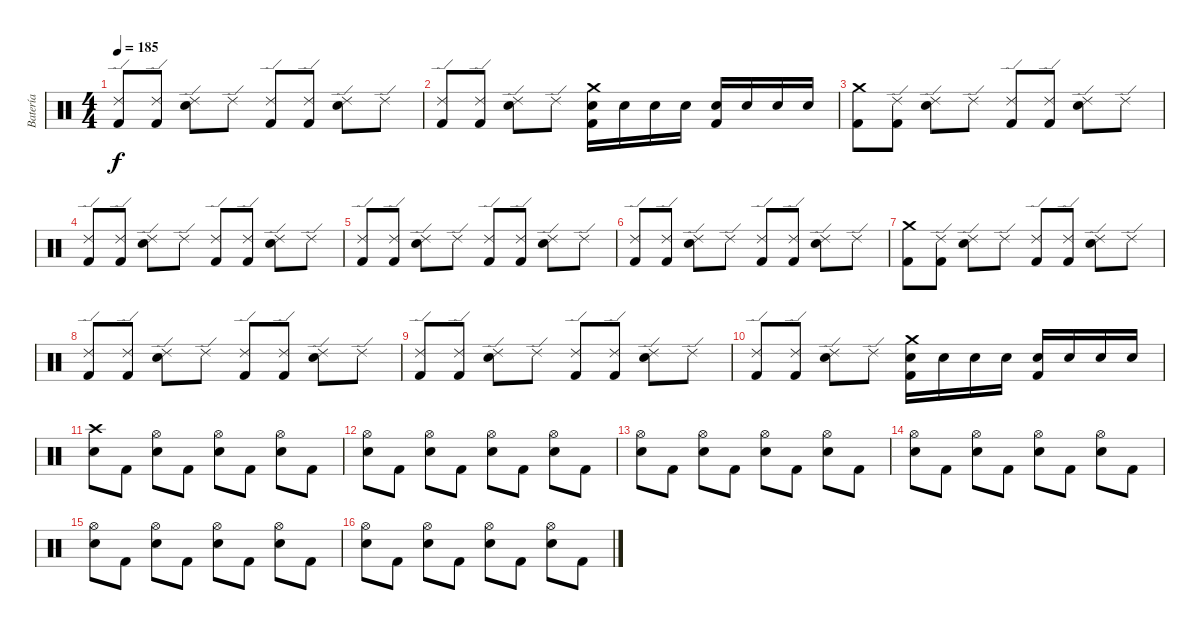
\track ("Batería" "Batería") {instrument percussion}
\staff {score}
\articulation defaults
\ts (4 4)
\tempo 185
\clef neutral
\ks c
("Ride (edge) 2" "Kick (hit) 2").8{dy f} ("Ride (edge) 2" "Kick (hit) 2").8 ("Ride (edge) 2" "Electric Snare (hit)").8 "Ride (edge) 2".8 ("Ride (edge) 2" "Kick (hit) 2").8 ("Ride (edge) 2" "Kick (hit) 2").8 ("Ride (edge) 2" "Electric Snare (hit)").8 "Ride (edge) 2".8 |
("Ride (edge) 2" "Kick (hit) 2").8 ("Ride (edge) 2" "Kick (hit) 2").8 ("Ride (edge) 2" "Electric Snare (hit)").8 "Ride (edge) 2".8 ("Crash medium (hit)" "Electric Snare (hit)" "Kick (hit) 2").16 "Electric Snare (hit)".16 "Electric Snare (hit)".16 "Electric Snare (hit)".16 ("Electric Snare (hit)" "Kick (hit) 2").16 "Electric Snare (hit)".16 "Electric Snare (hit)".16 "Electric Snare (hit)".16 |
("Crash medium (hit)" "Kick (hit) 2").8 ("Ride (edge) 2" "Kick (hit) 2").8 ("Ride (edge) 2" "Electric Snare (hit)").8 "Ride (edge) 2".8 ("Ride (edge) 2" "Kick (hit) 2").8 ("Ride (edge) 2" "Kick (hit) 2").8 ("Ride (edge) 2" "Electric Snare (hit)").8 "Ride (edge) 2".8 |
("Ride (edge) 2" "Kick (hit) 2").8 ("Ride (edge) 2" "Kick (hit) 2").8 ("Ride (edge) 2" "Electric Snare (hit)").8 "Ride (edge) 2".8 ("Ride (edge) 2" "Kick (hit) 2").8 ("Ride (edge) 2" "Kick (hit) 2").8 ("Ride (edge) 2" "Electric Snare (hit)").8 "Ride (edge) 2".8 |
("Ride (edge) 2" "Kick (hit) 2").8 ("Ride (edge) 2" "Kick (hit) 2").8 ("Ride (edge) 2" "Electric Snare (hit)").8 "Ride (edge) 2".8 ("Ride (edge) 2" "Kick (hit) 2").8 ("Ride (edge) 2" "Kick (hit) 2").8 ("Ride (edge) 2" "Electric Snare (hit)").8 "Ride (edge) 2".8 |
("Ride (edge) 2" "Kick (hit) 2").8 ("Ride (edge) 2" "Kick (hit) 2").8 ("Ride (edge) 2" "Electric Snare (hit)").8 "Ride (edge) 2".8 ("Ride (edge) 2" "Kick (hit) 2").8 ("Ride (edge) 2" "Kick (hit) 2").8 ("Ride (edge) 2" "Electric Snare (hit)").8 "Ride (edge) 2".8 |
("Crash medium (hit)" "Kick (hit) 2").8 ("Ride (edge) 2" "Kick (hit) 2").8 ("Ride (edge) 2" "Electric Snare (hit)").8 "Ride (edge) 2".8 ("Ride (edge) 2" "Kick (hit) 2").8 ("Ride (edge) 2" "Kick (hit) 2").8 ("Ride (edge) 2" "Electric Snare (hit)").8 "Ride (edge) 2".8 |
("Ride (edge) 2" "Kick (hit) 2").8 ("Ride (edge) 2" "Kick (hit) 2").8 ("Ride (edge) 2" "Electric Snare (hit)").8 "Ride (edge) 2".8 ("Ride (edge) 2" "Kick (hit) 2").8 ("Ride (edge) 2" "Kick (hit) 2").8 ("Ride (edge) 2" "Electric Snare (hit)").8 "Ride (edge) 2".8 |
("Ride (edge) 2" "Kick (hit) 2").8 ("Ride (edge) 2" "Kick (hit) 2").8 ("Ride (edge) 2" "Electric Snare (hit)").8 "Ride (edge) 2".8 ("Ride (edge) 2" "Kick (hit) 2").8 ("Ride (edge) 2" "Kick (hit) 2").8 ("Ride (edge) 2" "Electric Snare (hit)").8 "Ride (edge) 2".8 |
("Ride (edge) 2" "Kick (hit) 2").8 ("Ride (edge) 2" "Kick (hit) 2").8 ("Ride (edge) 2" "Electric Snare (hit)").8 "Ride (edge) 2".8 ("Crash medium (hit)" "Electric Snare (hit)" "Kick (hit) 2").16 "Electric Snare (hit)".16 "Electric Snare (hit)".16 "Electric Snare (hit)".16 ("Electric Snare (hit)" "Kick (hit) 2").16 "Electric Snare (hit)".16 "Electric Snare (hit)".16 "Electric Snare (hit)".16 |
("Crash high (hit)" "Electric Snare (hit)").8 "Kick (hit) 2".8 ("Hi-Hat (open)" "Electric Snare (hit)").8 "Kick (hit) 2".8 ("Hi-Hat (open)" "Electric Snare (hit)").8 "Kick (hit) 2".8 ("Hi-Hat (open)" "Electric Snare (hit)").8 "Kick (hit) 2".8 |
("Hi-Hat (open)" "Electric Snare (hit)").8 "Kick (hit) 2".8 ("Hi-Hat (open)" "Electric Snare (hit)").8 "Kick (hit) 2".8 ("Hi-Hat (open)" "Electric Snare (hit)").8 "Kick (hit) 2".8 ("Hi-Hat (open)" "Electric Snare (hit)").8 "Kick (hit) 2".8 |
("Hi-Hat (open)" "Electric Snare (hit)").8 "Kick (hit) 2".8 ("Hi-Hat (open)" "Electric Snare (hit)").8 "Kick (hit) 2".8 ("Hi-Hat (open)" "Electric Snare (hit)").8 "Kick (hit) 2".8 ("Hi-Hat (open)" "Electric Snare (hit)").8 "Kick (hit) 2".8 |
("Hi-Hat (open)" "Electric Snare (hit)").8 "Kick (hit) 2".8 ("Hi-Hat (open)" "Electric Snare (hit)").8 "Kick (hit) 2".8 ("Hi-Hat (open)" "Electric Snare (hit)").8 "Kick (hit) 2".8 ("Hi-Hat (open)" "Electric Snare (hit)").8 "Kick (hit) 2".8 |
("Hi-Hat (open)" "Electric Snare (hit)").8 "Kick (hit) 2".8 ("Hi-Hat (open)" "Electric Snare (hit)").8 "Kick (hit) 2".8 ("Hi-Hat (open)" "Electric Snare (hit)").8 "Kick (hit) 2".8 ("Hi-Hat (open)" "Electric Snare (hit)").8 "Kick (hit) 2".8 |
("Hi-Hat (open)" "Electric Snare (hit)").8 "Kick (hit) 2".8 ("Hi-Hat (open)" "Electric Snare (hit)").8 "Kick (hit) 2".8 ("Hi-Hat (open)" "Electric Snare (hit)").8 "Kick (hit) 2".8 ("Hi-Hat (open)" "Electric Snare (hit)").8 "Kick (hit) 2".8
